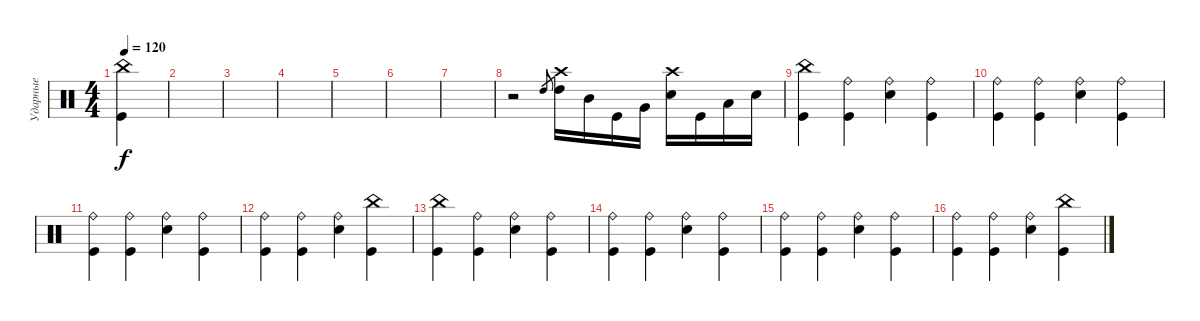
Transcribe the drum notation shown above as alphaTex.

\track ("Ударные" "Ударные") {instrument percussion}
\staff {score}
\articulation defaults
\ts (4 4)
\tempo 120
\clef neutral
\ks c
("Kick (hit)" "China (hit)").4{dy f} |
|
|
|
|
|
|
r.2 "High Tom (hit)".8{gr} ("Crash high (hit)" "High Tom (hit)").16 "Mid Tom (hit)".16 "Kick (hit)".16 "Very Low Tom (hit)".16 ("Crash high (hit)" "Electric Snare (hit)").16 "Kick (hit)".16 "Low Floor Tom (hit)".16 "Electric Snare (hit)".16 |
("China (hit)" "Kick (hit)").4 ("Ride (bell)" "Kick (hit)").4 ("Ride (bell)" "Electric Snare (hit)").4 ("Ride (bell)" "Kick (hit)").4 |
("Ride (bell)" "Kick (hit)").4 ("Ride (bell)" "Kick (hit)").4 ("Ride (bell)" "Electric Snare (hit)").4 ("Ride (bell)" "Kick (hit)").4 |
("Ride (bell)" "Kick (hit)").4 ("Ride (bell)" "Kick (hit)").4 ("Ride (bell)" "Electric Snare (hit)").4 ("Ride (bell)" "Kick (hit)").4 |
("Ride (bell)" "Kick (hit)").4 ("Ride (bell)" "Kick (hit)").4 ("Ride (bell)" "Electric Snare (hit)").4 ("China (hit)" "Kick (hit)").4 |
("China (hit)" "Kick (hit)").4 ("Ride (bell)" "Kick (hit)").4 ("Ride (bell)" "Electric Snare (hit)").4 ("Ride (bell)" "Kick (hit)").4 |
("Ride (bell)" "Kick (hit)").4 ("Ride (bell)" "Kick (hit)").4 ("Ride (bell)" "Electric Snare (hit)").4 ("Ride (bell)" "Kick (hit)").4 |
("Ride (bell)" "Kick (hit)").4 ("Ride (bell)" "Kick (hit)").4 ("Ride (bell)" "Electric Snare (hit)").4 ("Ride (bell)" "Kick (hit)").4 |
("Ride (bell)" "Kick (hit)").4 ("Ride (bell)" "Kick (hit)").4 ("Ride (bell)" "Electric Snare (hit)").4 ("China (hit)" "Kick (hit)").4
